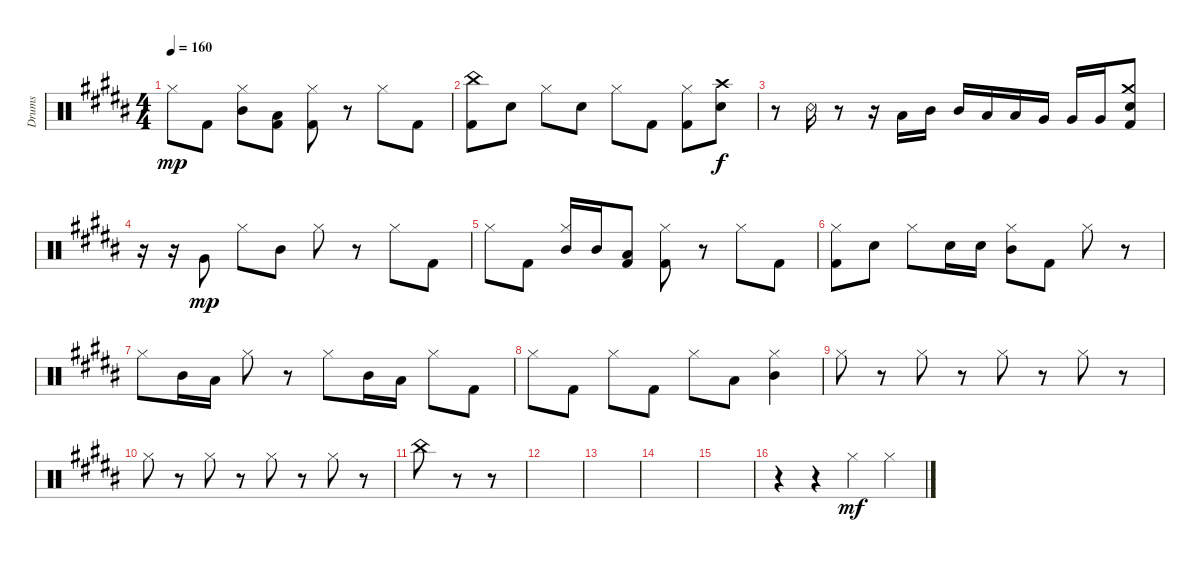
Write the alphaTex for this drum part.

\bracketExtendMode groupsimilarinstruments
\otherSystemsTrackNameOrientation horizontal
\track ("Drumkit" "Drums") {instrument percussion}
\staff {score}
\articulation defaults
\ts (4 4)
\tempo 160
\clef neutral
\ks b "Hi-Hat (closed)"{acc bb}.8{dy mp beam Down} "Kick (hit) 2"{acc bb}.8{beam Down}
("Hi-Hat (closed)"{acc bb} "Mid Tom (hit)"{acc bb}).8{beam Down} ("Kick (hit) 2"{acc bb} "Low Tom (hit)"{acc bb}).8{beam Down} ("Kick (hit) 2"{acc bb} "Hi-Hat (closed)"{acc bb}).8{beam Down} r.8{beam Down} "Hi-Hat (closed)"{acc bb}.8{beam Down} "Kick (hit) 2"{acc bb}.8{beam Down} |
("Kick (hit) 2"{acc bb} "China (hit)"{acc bb}).8{beam Down} "Snare (hit) 2"{acc bb}.8{beam Down} "Hi-Hat (closed)"{acc bb}.8{beam Down} "Snare (hit) 2"{acc bb}.8{beam Down} "Hi-Hat (closed)"{acc bb}.8{beam Down} "Kick (hit) 2"{acc bb}.8{beam Down} ("Hi-Hat (closed)"{acc bb} "Kick (hit) 2"{acc bb}).8{beam Down} ("Snare (hit) 2"{acc bb} "Crash high (hit)"{acc bb}).8{dy f beam Down} |
r.8{beam Down} "Snare (rim shot)"{acc bb}.16{beam Down} r.8{beam Down} r.16{beam Down} "Low Tom (hit)"{acc bb}.16{beam Up} "Mid Tom (hit)"{acc bb}.16{beam Up} "Mid Tom (hit)"{acc bb}.16{beam Up} "Low Tom (hit)"{acc bb}.16{beam Up} "Low Tom (hit)"{acc bb}.16{beam Up} "Very Low Tom (hit)"{acc bb}.16{beam Up} "Very Low Tom (hit)"{acc bb}.16{beam Up} "Very Low Tom (hit)"{acc bb}.16{beam Up} ("Kick (hit) 2"{acc bb} "Snare (hit) 2"{acc bb} "Crash medium (hit)"{acc bb}).8{beam Up} |
r.16{beam Down} r.16{beam Down} "Very Low Tom (hit)"{acc bb}.8{dy mp beam Up} "Hi-Hat (closed)"{acc bb}.8{beam Down} "Mid Tom (hit)"{acc bb}.8{beam Down} "Hi-Hat (closed)"{acc bb}.8{beam Down} r.8{beam Down} "Hi-Hat (closed)"{acc bb}.8{beam Down} "Kick (hit) 2"{acc bb}.8{beam Down} |
"Hi-Hat (closed)"{acc bb}.8{beam Down} "Kick (hit) 2"{acc bb}.8{beam Down} ("Mid Tom (hit)"{acc bb} "Hi-Hat (closed)"{acc bb}).16{beam Up} "Mid Tom (hit)"{acc bb}.16{beam Up} ("Kick (hit) 2"{acc bb} "Low Tom (hit)"{acc bb}).8{beam Up} ("Kick (hit) 2"{acc bb} "Hi-Hat (closed)"{acc bb}).8{beam Down} r.8{beam Down} "Hi-Hat (closed)"{acc bb}.8{beam Down} "Kick (hit) 2"{acc bb}.8{beam Down} |
("Kick (hit) 2"{acc bb} "Hi-Hat (closed)"{acc bb}).8{beam Down} "Snare (hit) 2"{acc bb}.8{beam Down} "Hi-Hat (closed)"{acc bb}.8{beam Down} "Snare (hit) 2"{acc bb}.16{beam Down} "Snare (hit) 2"{acc bb}.16{beam Down} ("Mid Tom (hit)"{acc bb} "Hi-Hat (closed)"{acc bb}).8{beam Down} "Kick (hit) 2"{acc bb}.8{beam Down} "Hi-Hat (closed)"{acc bb}.8{beam Down} r.8{beam Down} |
"Hi-Hat (closed)"{acc bb}.8{beam Down} "Mid Tom (hit)"{acc bb}.16{beam Down} "Low Tom (hit)"{acc bb}.16{beam Down} "Hi-Hat (closed)"{acc bb}.8{beam Down} r.8{beam Down} "Hi-Hat (closed)"{acc bb}.8{beam Down} "Mid Tom (hit)"{acc bb}.16{beam Down} "Low Tom (hit)"{acc bb}.16{beam Down} "Hi-Hat (closed)"{acc bb}.8{beam Down} "Kick (hit) 2"{acc bb}.8{beam Down} |
"Hi-Hat (closed)"{acc bb}.8{beam Down} "Kick (hit) 2"{acc bb}.8{beam Down} "Hi-Hat (closed)"{acc bb}.8{beam Down} "Kick (hit) 2"{acc bb}.8{beam Down} "Hi-Hat (closed)"{acc bb}.8{beam Down} "Low Tom (hit)"{acc bb}.8{beam Down} ("Hi-Hat (closed)"{acc bb} "Mid Tom (hit)"{acc bb}).4{beam Down} |
"Hi-Hat (closed)"{acc bb}.8{beam Down} r.8{beam Down} "Hi-Hat (closed)"{acc bb}.8{beam Down} r.8{beam Down} "Hi-Hat (closed)"{acc bb}.8{beam Down} r.8{beam Down} "Hi-Hat (closed)"{acc bb}.8{beam Down} r.8{beam Down} |
"Hi-Hat (closed)"{acc bb}.8{beam Down} r.8{beam Down} "Hi-Hat (closed)"{acc bb}.8{beam Down} r.8{beam Down} "Hi-Hat (closed)"{acc bb}.8{beam Down} r.8{beam Down} "Hi-Hat (closed)"{acc bb}.8{beam Down} r.8{beam Down} |
"China (hit)"{acc bb}.8{beam Down} r.8{beam Down} r.8{beam Down} |
|
|
|
|
r.4{beam Down} r.4{beam Down} "Hi-Hat (closed)"{acc bb}.4{dy mf beam Down} "Hi-Hat (closed)"{acc bb}.4{beam Down}
